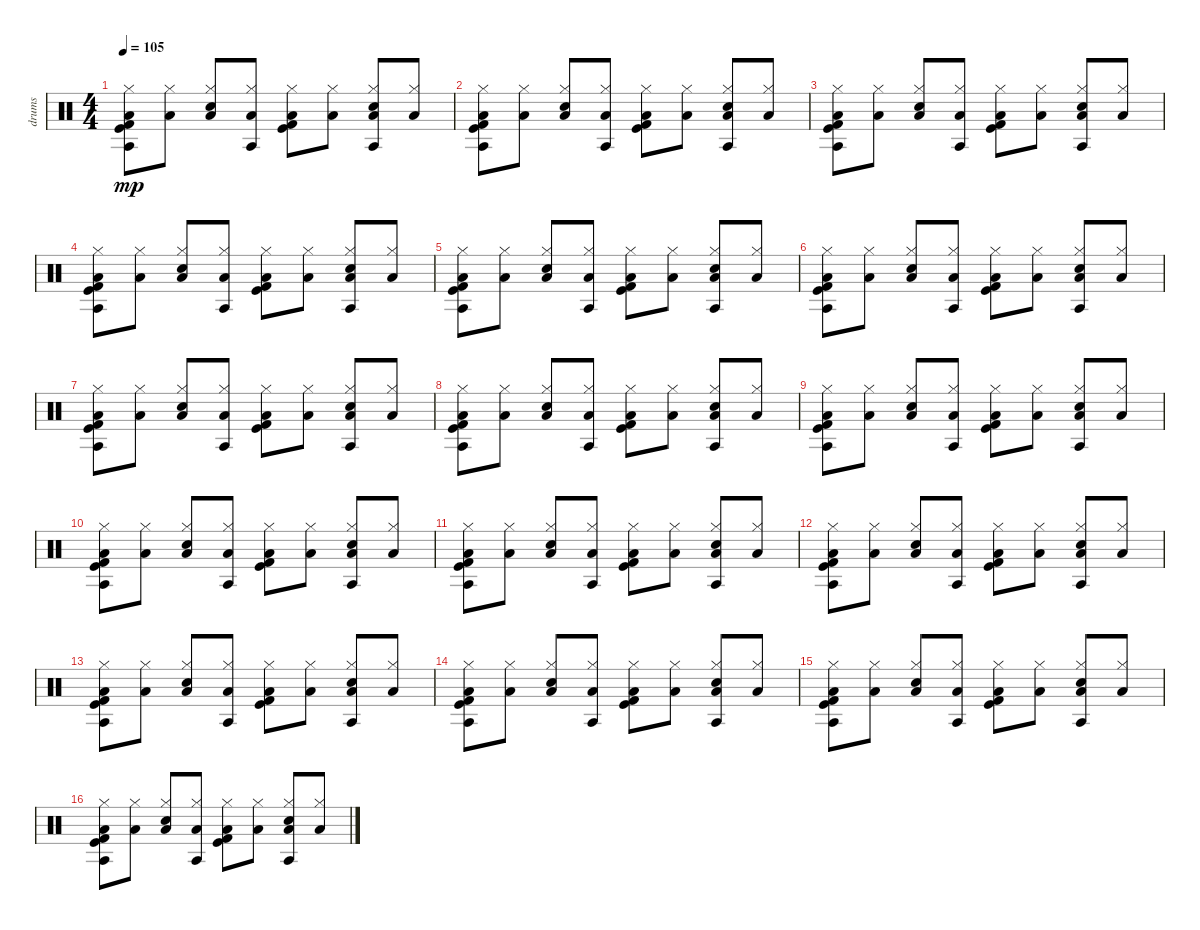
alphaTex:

\track ("drums" "drums") {instrument percussion}
\staff {score}
\articulation defaults
\ts (4 4)
\tempo 105
\clef neutral
\ks c
("Kick (hit)" "Kick (hit) 2" "Agogo tow (hit)" "Hi-Hat (closed)" "Low Floor Tom (hit)").8{dy mp} ("Hi-Hat (closed)" "Low Floor Tom (hit)").8 ("Hi-Hat (closed)" "Electric Snare (hit)" "Low Floor Tom (hit)").8 ("Agogo tow (hit)" "Hi-Hat (closed)" "Low Floor Tom (hit)").8 ("Kick (hit)" "Kick (hit) 2" "Hi-Hat (closed)" "Low Floor Tom (hit)").8 ("Hi-Hat (closed)" "Low Floor Tom (hit)").8 ("Agogo tow (hit)" "Hi-Hat (closed)" "Electric Snare (hit)" "Low Floor Tom (hit)").8 ("Hi-Hat (closed)" "Low Floor Tom (hit)").8 |
("Kick (hit)" "Kick (hit) 2" "Agogo tow (hit)" "Hi-Hat (closed)" "Low Floor Tom (hit)").8 ("Hi-Hat (closed)" "Low Floor Tom (hit)").8 ("Hi-Hat (closed)" "Electric Snare (hit)" "Low Floor Tom (hit)").8 ("Agogo tow (hit)" "Hi-Hat (closed)" "Low Floor Tom (hit)").8 ("Kick (hit)" "Kick (hit) 2" "Hi-Hat (closed)" "Low Floor Tom (hit)").8 ("Hi-Hat (closed)" "Low Floor Tom (hit)").8 ("Agogo tow (hit)" "Hi-Hat (closed)" "Electric Snare (hit)" "Low Floor Tom (hit)").8 ("Hi-Hat (closed)" "Low Floor Tom (hit)").8 |
("Kick (hit)" "Kick (hit) 2" "Agogo tow (hit)" "Hi-Hat (closed)" "Low Floor Tom (hit)").8 ("Hi-Hat (closed)" "Low Floor Tom (hit)").8 ("Hi-Hat (closed)" "Electric Snare (hit)" "Low Floor Tom (hit)").8 ("Agogo tow (hit)" "Hi-Hat (closed)" "Low Floor Tom (hit)").8 ("Kick (hit)" "Kick (hit) 2" "Hi-Hat (closed)" "Low Floor Tom (hit)").8 ("Hi-Hat (closed)" "Low Floor Tom (hit)").8 ("Agogo tow (hit)" "Hi-Hat (closed)" "Electric Snare (hit)" "Low Floor Tom (hit)").8 ("Hi-Hat (closed)" "Low Floor Tom (hit)").8 |
("Kick (hit)" "Kick (hit) 2" "Hi-Hat (closed)" "Agogo tow (hit)" "Low Floor Tom (hit)").8 ("Hi-Hat (closed)" "Low Floor Tom (hit)").8 ("Hi-Hat (closed)" "Electric Snare (hit)" "Low Floor Tom (hit)").8 ("Hi-Hat (closed)" "Agogo tow (hit)" "Low Floor Tom (hit)").8 ("Kick (hit)" "Kick (hit) 2" "Hi-Hat (closed)" "Low Floor Tom (hit)").8 ("Hi-Hat (closed)" "Low Floor Tom (hit)").8 ("Hi-Hat (closed)" "Agogo tow (hit)" "Electric Snare (hit)" "Low Floor Tom (hit)").8 ("Hi-Hat (closed)" "Low Floor Tom (hit)").8 |
("Kick (hit)" "Kick (hit) 2" "Agogo tow (hit)" "Hi-Hat (closed)" "Low Floor Tom (hit)").8 ("Hi-Hat (closed)" "Low Floor Tom (hit)").8 ("Hi-Hat (closed)" "Electric Snare (hit)" "Low Floor Tom (hit)").8 ("Agogo tow (hit)" "Hi-Hat (closed)" "Low Floor Tom (hit)").8 ("Kick (hit)" "Kick (hit) 2" "Hi-Hat (closed)" "Low Floor Tom (hit)").8 ("Hi-Hat (closed)" "Low Floor Tom (hit)").8 ("Agogo tow (hit)" "Hi-Hat (closed)" "Electric Snare (hit)" "Low Floor Tom (hit)").8 ("Hi-Hat (closed)" "Low Floor Tom (hit)").8 |
("Kick (hit)" "Kick (hit) 2" "Hi-Hat (closed)" "Agogo tow (hit)" "Low Floor Tom (hit)").8 ("Hi-Hat (closed)" "Low Floor Tom (hit)").8 ("Hi-Hat (closed)" "Electric Snare (hit)" "Low Floor Tom (hit)").8 ("Hi-Hat (closed)" "Agogo tow (hit)" "Low Floor Tom (hit)").8 ("Kick (hit)" "Kick (hit) 2" "Hi-Hat (closed)" "Low Floor Tom (hit)").8 ("Hi-Hat (closed)" "Low Floor Tom (hit)").8 ("Hi-Hat (closed)" "Agogo tow (hit)" "Electric Snare (hit)" "Low Floor Tom (hit)").8 ("Hi-Hat (closed)" "Low Floor Tom (hit)").8 |
("Kick (hit)" "Kick (hit) 2" "Hi-Hat (closed)" "Agogo tow (hit)" "Low Floor Tom (hit)").8 ("Hi-Hat (closed)" "Low Floor Tom (hit)").8 ("Hi-Hat (closed)" "Electric Snare (hit)" "Low Floor Tom (hit)").8 ("Hi-Hat (closed)" "Agogo tow (hit)" "Low Floor Tom (hit)").8 ("Kick (hit)" "Kick (hit) 2" "Hi-Hat (closed)" "Low Floor Tom (hit)").8 ("Hi-Hat (closed)" "Low Floor Tom (hit)").8 ("Hi-Hat (closed)" "Agogo tow (hit)" "Electric Snare (hit)" "Low Floor Tom (hit)").8 ("Hi-Hat (closed)" "Low Floor Tom (hit)").8 |
("Kick (hit)" "Kick (hit) 2" "Hi-Hat (closed)" "Agogo tow (hit)" "Low Floor Tom (hit)").8 ("Hi-Hat (closed)" "Low Floor Tom (hit)").8 ("Hi-Hat (closed)" "Electric Snare (hit)" "Low Floor Tom (hit)").8 ("Hi-Hat (closed)" "Agogo tow (hit)" "Low Floor Tom (hit)").8 ("Kick (hit)" "Kick (hit) 2" "Hi-Hat (closed)" "Low Floor Tom (hit)").8 ("Hi-Hat (closed)" "Low Floor Tom (hit)").8 ("Hi-Hat (closed)" "Agogo tow (hit)" "Electric Snare (hit)" "Low Floor Tom (hit)").8 ("Hi-Hat (closed)" "Low Floor Tom (hit)").8 |
("Kick (hit)" "Kick (hit) 2" "Agogo tow (hit)" "Hi-Hat (closed)" "Low Floor Tom (hit)").8 ("Hi-Hat (closed)" "Low Floor Tom (hit)").8 ("Hi-Hat (closed)" "Electric Snare (hit)" "Low Floor Tom (hit)").8 ("Agogo tow (hit)" "Hi-Hat (closed)" "Low Floor Tom (hit)").8 ("Kick (hit)" "Kick (hit) 2" "Hi-Hat (closed)" "Low Floor Tom (hit)").8 ("Hi-Hat (closed)" "Low Floor Tom (hit)").8 ("Agogo tow (hit)" "Hi-Hat (closed)" "Electric Snare (hit)" "Low Floor Tom (hit)").8 ("Hi-Hat (closed)" "Low Floor Tom (hit)").8 |
("Kick (hit)" "Kick (hit) 2" "Hi-Hat (closed)" "Agogo tow (hit)" "Low Floor Tom (hit)").8 ("Hi-Hat (closed)" "Low Floor Tom (hit)").8 ("Hi-Hat (closed)" "Electric Snare (hit)" "Low Floor Tom (hit)").8 ("Hi-Hat (closed)" "Agogo tow (hit)" "Low Floor Tom (hit)").8 ("Kick (hit)" "Kick (hit) 2" "Hi-Hat (closed)" "Low Floor Tom (hit)").8 ("Hi-Hat (closed)" "Low Floor Tom (hit)").8 ("Hi-Hat (closed)" "Agogo tow (hit)" "Electric Snare (hit)" "Low Floor Tom (hit)").8 ("Hi-Hat (closed)" "Low Floor Tom (hit)").8 |
("Kick (hit)" "Kick (hit) 2" "Hi-Hat (closed)" "Agogo tow (hit)" "Low Floor Tom (hit)").8 ("Hi-Hat (closed)" "Low Floor Tom (hit)").8 ("Hi-Hat (closed)" "Electric Snare (hit)" "Low Floor Tom (hit)").8 ("Hi-Hat (closed)" "Agogo tow (hit)" "Low Floor Tom (hit)").8 ("Kick (hit)" "Kick (hit) 2" "Hi-Hat (closed)" "Low Floor Tom (hit)").8 ("Hi-Hat (closed)" "Low Floor Tom (hit)").8 ("Hi-Hat (closed)" "Agogo tow (hit)" "Electric Snare (hit)" "Low Floor Tom (hit)").8 ("Hi-Hat (closed)" "Low Floor Tom (hit)").8 |
("Kick (hit)" "Kick (hit) 2" "Hi-Hat (closed)" "Agogo tow (hit)" "Low Floor Tom (hit)").8 ("Hi-Hat (closed)" "Low Floor Tom (hit)").8 ("Hi-Hat (closed)" "Electric Snare (hit)" "Low Floor Tom (hit)").8 ("Hi-Hat (closed)" "Agogo tow (hit)" "Low Floor Tom (hit)").8 ("Kick (hit)" "Kick (hit) 2" "Hi-Hat (closed)" "Low Floor Tom (hit)").8 ("Hi-Hat (closed)" "Low Floor Tom (hit)").8 ("Hi-Hat (closed)" "Agogo tow (hit)" "Electric Snare (hit)" "Low Floor Tom (hit)").8 ("Hi-Hat (closed)" "Low Floor Tom (hit)").8 |
("Kick (hit)" "Kick (hit) 2" "Agogo tow (hit)" "Hi-Hat (closed)" "Low Floor Tom (hit)").8 ("Hi-Hat (closed)" "Low Floor Tom (hit)").8 ("Hi-Hat (closed)" "Electric Snare (hit)" "Low Floor Tom (hit)").8 ("Agogo tow (hit)" "Hi-Hat (closed)" "Low Floor Tom (hit)").8 ("Kick (hit)" "Kick (hit) 2" "Hi-Hat (closed)" "Low Floor Tom (hit)").8 ("Hi-Hat (closed)" "Low Floor Tom (hit)").8 ("Agogo tow (hit)" "Hi-Hat (closed)" "Electric Snare (hit)" "Low Floor Tom (hit)").8 ("Hi-Hat (closed)" "Low Floor Tom (hit)").8 |
("Kick (hit)" "Kick (hit) 2" "Hi-Hat (closed)" "Agogo tow (hit)" "Low Floor Tom (hit)").8 ("Hi-Hat (closed)" "Low Floor Tom (hit)").8 ("Hi-Hat (closed)" "Electric Snare (hit)" "Low Floor Tom (hit)").8 ("Hi-Hat (closed)" "Agogo tow (hit)" "Low Floor Tom (hit)").8 ("Kick (hit)" "Kick (hit) 2" "Hi-Hat (closed)" "Low Floor Tom (hit)").8 ("Hi-Hat (closed)" "Low Floor Tom (hit)").8 ("Hi-Hat (closed)" "Agogo tow (hit)" "Electric Snare (hit)" "Low Floor Tom (hit)").8 ("Hi-Hat (closed)" "Low Floor Tom (hit)").8 |
("Kick (hit)" "Kick (hit) 2" "Hi-Hat (closed)" "Agogo tow (hit)" "Low Floor Tom (hit)").8 ("Hi-Hat (closed)" "Low Floor Tom (hit)").8 ("Hi-Hat (closed)" "Electric Snare (hit)" "Low Floor Tom (hit)").8 ("Hi-Hat (closed)" "Agogo tow (hit)" "Low Floor Tom (hit)").8 ("Kick (hit)" "Kick (hit) 2" "Hi-Hat (closed)" "Low Floor Tom (hit)").8 ("Hi-Hat (closed)" "Low Floor Tom (hit)").8 ("Hi-Hat (closed)" "Agogo tow (hit)" "Electric Snare (hit)" "Low Floor Tom (hit)").8 ("Hi-Hat (closed)" "Low Floor Tom (hit)").8 |
("Kick (hit)" "Kick (hit) 2" "Hi-Hat (closed)" "Agogo tow (hit)" "Low Floor Tom (hit)").8 ("Hi-Hat (closed)" "Low Floor Tom (hit)").8 ("Hi-Hat (closed)" "Electric Snare (hit)" "Low Floor Tom (hit)").8 ("Hi-Hat (closed)" "Agogo tow (hit)" "Low Floor Tom (hit)").8 ("Kick (hit)" "Kick (hit) 2" "Hi-Hat (closed)" "Low Floor Tom (hit)").8 ("Hi-Hat (closed)" "Low Floor Tom (hit)").8 ("Hi-Hat (closed)" "Agogo tow (hit)" "Electric Snare (hit)" "Low Floor Tom (hit)").8 ("Hi-Hat (closed)" "Low Floor Tom (hit)").8
